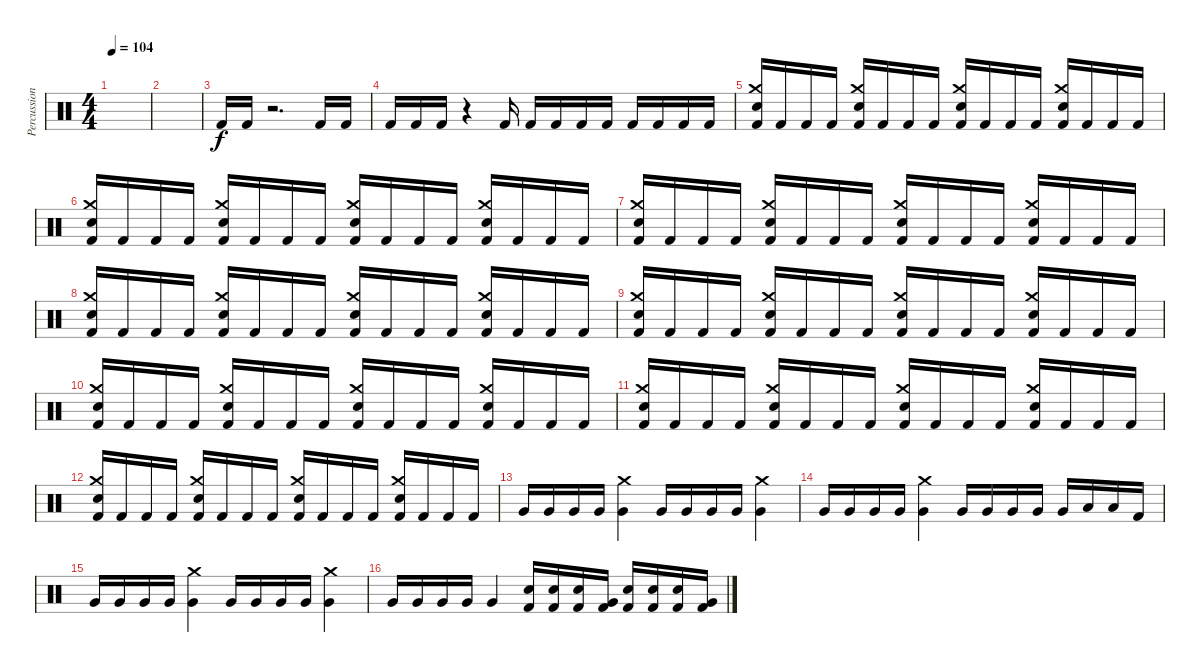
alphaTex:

\track ("Percussion" "Percussion") {instrument percussion}
\staff {score}
\articulation defaults
\ts (4 4)
\tempo 104
\clef neutral
\ks c
|
|
"Kick (hit) 2".16 "Kick (hit) 2".16 r.2{d} "Kick (hit) 2".16 "Kick (hit) 2".16 |
"Kick (hit) 2".16 "Kick (hit) 2".16 "Kick (hit) 2".16 r.4 "Kick (hit) 2".16 "Kick (hit) 2".16 "Kick (hit) 2".16 "Kick (hit) 2".16 "Kick (hit) 2".16 "Kick (hit) 2".16 "Kick (hit) 2".16 "Kick (hit) 2".16 "Kick (hit) 2".16 |
("Crash medium (hit)" "Snare (hit) 2" "Kick (hit) 2").16 "Kick (hit) 2".16 "Kick (hit) 2".16 "Kick (hit) 2".16 ("Crash medium (hit)" "Snare (hit) 2" "Kick (hit) 2").16 "Kick (hit) 2".16 "Kick (hit) 2".16 "Kick (hit) 2".16 ("Crash medium (hit)" "Snare (hit) 2" "Kick (hit) 2").16 "Kick (hit) 2".16 "Kick (hit) 2".16 "Kick (hit) 2".16 ("Crash medium (hit)" "Snare (hit) 2" "Kick (hit) 2").16 "Kick (hit) 2".16 "Kick (hit) 2".16 "Kick (hit) 2".16 |
("Crash medium (hit)" "Snare (hit) 2" "Kick (hit) 2").16 "Kick (hit) 2".16 "Kick (hit) 2".16 "Kick (hit) 2".16 ("Crash medium (hit)" "Snare (hit) 2" "Kick (hit) 2").16 "Kick (hit) 2".16 "Kick (hit) 2".16 "Kick (hit) 2".16 ("Crash medium (hit)" "Snare (hit) 2" "Kick (hit) 2").16 "Kick (hit) 2".16 "Kick (hit) 2".16 "Kick (hit) 2".16 ("Crash medium (hit)" "Snare (hit) 2" "Kick (hit) 2").16 "Kick (hit) 2".16 "Kick (hit) 2".16 "Kick (hit) 2".16 |
("Crash medium (hit)" "Snare (hit) 2" "Kick (hit) 2").16 "Kick (hit) 2".16 "Kick (hit) 2".16 "Kick (hit) 2".16 ("Crash medium (hit)" "Snare (hit) 2" "Kick (hit) 2").16 "Kick (hit) 2".16 "Kick (hit) 2".16 "Kick (hit) 2".16 ("Crash medium (hit)" "Snare (hit) 2" "Kick (hit) 2").16 "Kick (hit) 2".16 "Kick (hit) 2".16 "Kick (hit) 2".16 ("Crash medium (hit)" "Snare (hit) 2" "Kick (hit) 2").16 "Kick (hit) 2".16 "Kick (hit) 2".16 "Kick (hit) 2".16 |
("Crash medium (hit)" "Snare (hit) 2" "Kick (hit) 2").16 "Kick (hit) 2".16 "Kick (hit) 2".16 "Kick (hit) 2".16 ("Crash medium (hit)" "Snare (hit) 2" "Kick (hit) 2").16 "Kick (hit) 2".16 "Kick (hit) 2".16 "Kick (hit) 2".16 ("Crash medium (hit)" "Snare (hit) 2" "Kick (hit) 2").16 "Kick (hit) 2".16 "Kick (hit) 2".16 "Kick (hit) 2".16 ("Crash medium (hit)" "Snare (hit) 2" "Kick (hit) 2").16 "Kick (hit) 2".16 "Kick (hit) 2".16 "Kick (hit) 2".16 |
("Crash medium (hit)" "Snare (hit) 2" "Kick (hit) 2").16 "Kick (hit) 2".16 "Kick (hit) 2".16 "Kick (hit) 2".16 ("Crash medium (hit)" "Snare (hit) 2" "Kick (hit) 2").16 "Kick (hit) 2".16 "Kick (hit) 2".16 "Kick (hit) 2".16 ("Crash medium (hit)" "Snare (hit) 2" "Kick (hit) 2").16 "Kick (hit) 2".16 "Kick (hit) 2".16 "Kick (hit) 2".16 ("Crash medium (hit)" "Snare (hit) 2" "Kick (hit) 2").16 "Kick (hit) 2".16 "Kick (hit) 2".16 "Kick (hit) 2".16 |
("Crash medium (hit)" "Snare (hit) 2" "Kick (hit) 2").16 "Kick (hit) 2".16 "Kick (hit) 2".16 "Kick (hit) 2".16 ("Crash medium (hit)" "Snare (hit) 2" "Kick (hit) 2").16 "Kick (hit) 2".16 "Kick (hit) 2".16 "Kick (hit) 2".16 ("Crash medium (hit)" "Snare (hit) 2" "Kick (hit) 2").16 "Kick (hit) 2".16 "Kick (hit) 2".16 "Kick (hit) 2".16 ("Crash medium (hit)" "Snare (hit) 2" "Kick (hit) 2").16 "Kick (hit) 2".16 "Kick (hit) 2".16 "Kick (hit) 2".16 |
("Crash medium (hit)" "Snare (hit) 2" "Kick (hit) 2").16 "Kick (hit) 2".16 "Kick (hit) 2".16 "Kick (hit) 2".16 ("Crash medium (hit)" "Snare (hit) 2" "Kick (hit) 2").16 "Kick (hit) 2".16 "Kick (hit) 2".16 "Kick (hit) 2".16 ("Crash medium (hit)" "Snare (hit) 2" "Kick (hit) 2").16 "Kick (hit) 2".16 "Kick (hit) 2".16 "Kick (hit) 2".16 ("Crash medium (hit)" "Snare (hit) 2" "Kick (hit) 2").16 "Kick (hit) 2".16 "Kick (hit) 2".16 "Kick (hit) 2".16 |
("Crash medium (hit)" "Snare (hit) 2" "Kick (hit) 2").16 "Kick (hit) 2".16 "Kick (hit) 2".16 "Kick (hit) 2".16 ("Crash medium (hit)" "Snare (hit) 2" "Kick (hit) 2").16 "Kick (hit) 2".16 "Kick (hit) 2".16 "Kick (hit) 2".16 ("Crash medium (hit)" "Snare (hit) 2" "Kick (hit) 2").16 "Kick (hit) 2".16 "Kick (hit) 2".16 "Kick (hit) 2".16 ("Crash medium (hit)" "Snare (hit) 2" "Kick (hit) 2").16 "Kick (hit) 2".16 "Kick (hit) 2".16 "Kick (hit) 2".16 |
"Very Low Tom (hit)".16 "Very Low Tom (hit)".16 "Very Low Tom (hit)".16 "Very Low Tom (hit)".16 ("Crash medium (hit)" "Very Low Tom (hit)").4 "Very Low Tom (hit)".16 "Very Low Tom (hit)".16 "Very Low Tom (hit)".16 "Very Low Tom (hit)".16 ("Crash medium (hit)" "Very Low Tom (hit)").4 |
"Very Low Tom (hit)".16 "Very Low Tom (hit)".16 "Very Low Tom (hit)".16 "Very Low Tom (hit)".16 ("Crash medium (hit)" "Very Low Tom (hit)").4 "Very Low Tom (hit)".16 "Very Low Tom (hit)".16 "Very Low Tom (hit)".16 "Very Low Tom (hit)".16 "Very Low Tom (hit)".16 "Low Floor Tom (hit)".16 "Low Floor Tom (hit)".16 "Kick (hit) 2".16 |
"Very Low Tom (hit)".16 "Very Low Tom (hit)".16 "Very Low Tom (hit)".16 "Very Low Tom (hit)".16 ("Crash medium (hit)" "Very Low Tom (hit)").4 "Very Low Tom (hit)".16 "Very Low Tom (hit)".16 "Very Low Tom (hit)".16 "Very Low Tom (hit)".16 ("Crash medium (hit)" "Very Low Tom (hit)").4 |
"Very Low Tom (hit)".16 "Very Low Tom (hit)".16 "Very Low Tom (hit)".16 "Very Low Tom (hit)".16 "Very Low Tom (hit)".4 ("Snare (hit) 2" "Kick (hit) 2").16 ("Snare (hit) 2" "Kick (hit) 2").16 ("Snare (hit) 2" "Kick (hit) 2").16 ("Very Low Tom (hit)" "Kick (hit) 2").16 ("Snare (hit) 2" "Kick (hit) 2").16 ("Snare (hit) 2" "Kick (hit) 2").16 ("Snare (hit) 2" "Kick (hit) 2").16 ("Very Low Tom (hit)" "Kick (hit) 2").16
